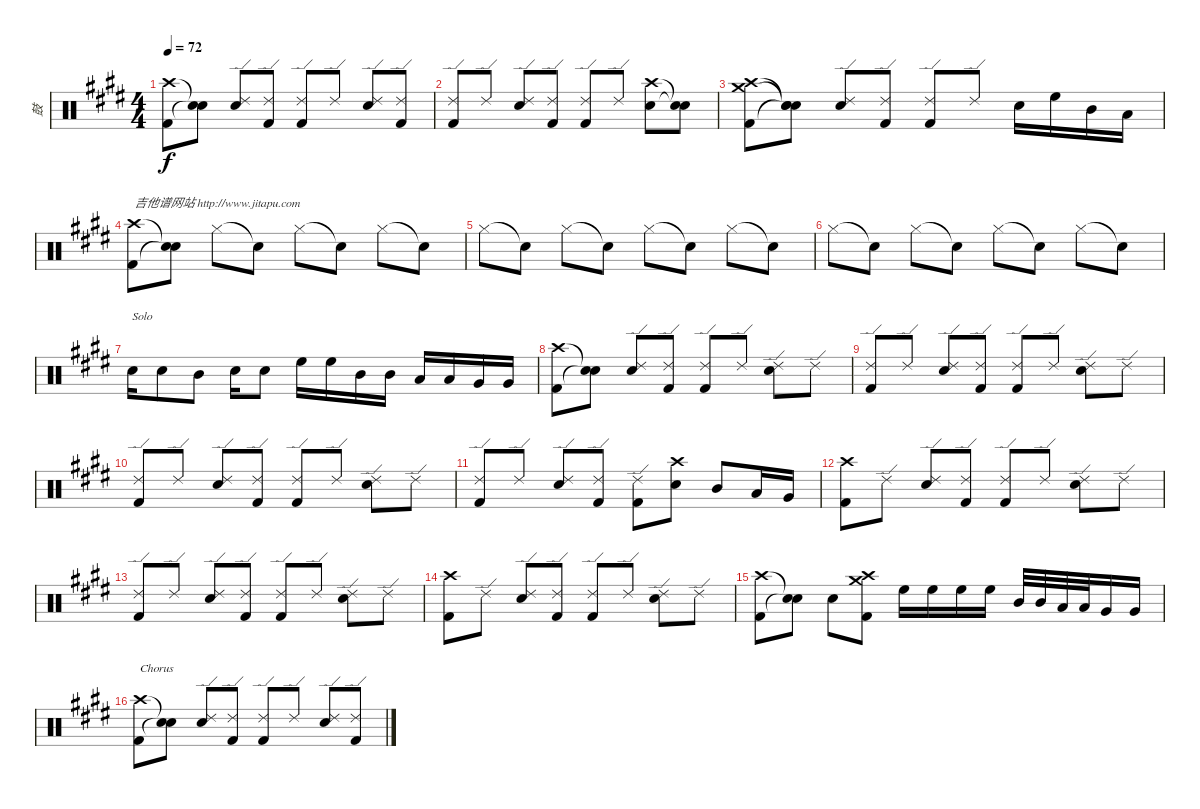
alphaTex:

\track ("鼓" "鼓") {instrument percussion}
\staff {score}
\articulation defaults
\ts (4 4)
\tempo 72
\clef neutral
\ks e
("Crash high (hit)" "Kick (hit) 2").8{dy f} ("Snare (hit)"{t} "Snare (hit)"{t}).8 ("Ride (edge) 2" "Electric Snare (hit)").8 ("Ride (edge) 2" "Kick (hit) 2").8 ("Ride (edge) 2" "Kick (hit) 2").8 "Ride (edge) 2".8 ("Ride (edge) 2" "Electric Snare (hit)").8 ("Ride (edge) 2" "Kick (hit) 2").8 |
("Ride (edge) 2" "Kick (hit) 2").8 "Ride (edge) 2".8 ("Ride (edge) 2" "Electric Snare (hit)").8 ("Ride (edge) 2" "Kick (hit) 2").8 ("Ride (edge) 2" "Kick (hit) 2").8 "Ride (edge) 2".8 ("Crash high (hit)" "Electric Snare (hit)").8 ("Snare (hit)"{t} "Snare (hit)"{t}).8 |
("Crash high (hit)" "Crash medium (hit)" "Kick (hit) 2").8 ("Snare (hit)"{t} "Snare (hit)"{t} "Snare (hit)"{t}).8 ("Ride (edge) 2" "Electric Snare (hit)").8 ("Ride (edge) 2" "Kick (hit) 2").8 ("Ride (edge) 2" "Kick (hit) 2").8 "Ride (edge) 2".8 "Electric Snare (hit)".16 "High Floor Tom (hit)".16 "Mid Tom (hit)".16 "Low Tom (hit)".16 |
("Crash high (hit)" "Kick (hit) 2").8{txt "吉他谱网站 http://www.jitapu.com"} ("Snare (hit)"{t} "Snare (hit)"{t}).8 "Hi-Hat (closed)".8 "Snare (hit)"{t}.8 "Hi-Hat (closed)".8 "Snare (hit)"{t}.8 "Hi-Hat (closed)".8 "Snare (hit)"{t}.8 |
"Hi-Hat (closed)".8 "Snare (hit)"{t}.8 "Hi-Hat (closed)".8 "Snare (hit)"{t}.8 "Hi-Hat (closed)".8 "Snare (hit)"{t}.8 "Hi-Hat (closed)".8 "Snare (hit)"{t}.8 |
"Hi-Hat (closed)".8 "Snare (hit)"{t}.8 "Hi-Hat (closed)".8 "Snare (hit)"{t}.8 "Hi-Hat (closed)".8 "Snare (hit)"{t}.8 "Hi-Hat (closed)".8 "Snare (hit)"{t}.8 |
"Electric Snare (hit)".16{txt "Solo"} "Electric Snare (hit)".8 "Mid Tom (hit)".8 "Electric Snare (hit)".16 "Electric Snare (hit)".8 "High Floor Tom (hit)".16 "High Floor Tom (hit)".16 "Mid Tom (hit)".16 "Mid Tom (hit)".16 "Low Tom (hit)".16 "Low Tom (hit)".16 "Very Low Tom (hit)".16 "Very Low Tom (hit)".16 |
("Crash high (hit)" "Kick (hit) 2").8 ("Snare (hit)"{t} "Snare (hit)"{t}).8 ("Ride (edge) 2" "Electric Snare (hit)").8 ("Ride (edge) 2" "Kick (hit) 2").8 ("Ride (edge) 2" "Kick (hit) 2").8 "Ride (edge) 2".8 ("Ride (edge) 2" "Electric Snare (hit)").8 "Ride (edge) 2".8 |
("Ride (edge) 2" "Kick (hit) 2").8 "Ride (edge) 2".8 ("Ride (edge) 2" "Electric Snare (hit)").8 ("Ride (edge) 2" "Kick (hit) 2").8 ("Ride (edge) 2" "Kick (hit) 2").8 "Ride (edge) 2".8 ("Ride (edge) 2" "Electric Snare (hit)").8 "Ride (edge) 2".8 |
("Ride (edge) 2" "Kick (hit) 2").8 "Ride (edge) 2".8 ("Ride (edge) 2" "Electric Snare (hit)").8 ("Ride (edge) 2" "Kick (hit) 2").8 ("Ride (edge) 2" "Kick (hit) 2").8 "Ride (edge) 2".8 ("Ride (edge) 2" "Electric Snare (hit)").8 "Ride (edge) 2".8 |
("Ride (edge) 2" "Kick (hit) 2").8 "Ride (edge) 2".8 ("Ride (edge) 2" "Electric Snare (hit)").8 ("Ride (edge) 2" "Kick (hit) 2").8 ("Ride (edge) 2" "Kick (hit) 2").8 ("Crash high (hit)" "Electric Snare (hit)").8 "Mid Tom (hit)".8 "Low Tom (hit)".16 "Very Low Tom (hit)".16 |
("Crash high (hit)" "Kick (hit) 2").8 "Ride (edge) 2".8 ("Ride (edge) 2" "Electric Snare (hit)").8 ("Ride (edge) 2" "Kick (hit) 2").8 ("Ride (edge) 2" "Kick (hit) 2").8 "Ride (edge) 2".8 ("Ride (edge) 2" "Electric Snare (hit)").8 "Ride (edge) 2".8 |
("Ride (edge) 2" "Kick (hit) 2").8 "Ride (edge) 2".8 ("Ride (edge) 2" "Electric Snare (hit)").8 ("Ride (edge) 2" "Kick (hit) 2").8 ("Ride (edge) 2" "Kick (hit) 2").8 "Ride (edge) 2".8 ("Ride (edge) 2" "Electric Snare (hit)").8 "Ride (edge) 2".8 |
("Crash high (hit)" "Kick (hit) 2").8 "Ride (edge) 2".8 ("Ride (edge) 2" "Electric Snare (hit)").8 ("Ride (edge) 2" "Kick (hit) 2").8 ("Ride (edge) 2" "Kick (hit) 2").8 "Ride (edge) 2".8 ("Ride (edge) 2" "Electric Snare (hit)").8 "Ride (edge) 2".8 |
("Crash high (hit)" "Kick (hit) 2").8 ("Snare (hit)"{t} "Snare (hit)"{t}).8 "Electric Snare (hit)".8 ("Crash high (hit)" "Crash medium (hit)" "Kick (hit) 2").8 "High Floor Tom (hit)".16 "High Floor Tom (hit)".16 "High Floor Tom (hit)".16 "High Floor Tom (hit)".16 "Mid Tom (hit)".32 "Mid Tom (hit)".32 "Low Tom (hit)".32 "Low Tom (hit)".32 "Very Low Tom (hit)".16 "Very Low Tom (hit)".16 |
("Crash high (hit)" "Kick (hit) 2").8{txt "Chorus"} ("Snare (hit)"{t} "Snare (hit)"{t}).8 ("Ride (edge) 2" "Electric Snare (hit)").8 ("Ride (edge) 2" "Kick (hit) 2").8 ("Ride (edge) 2" "Kick (hit) 2").8 "Ride (edge) 2".8 ("Ride (edge) 2" "Electric Snare (hit)").8 ("Ride (edge) 2" "Kick (hit) 2").8
